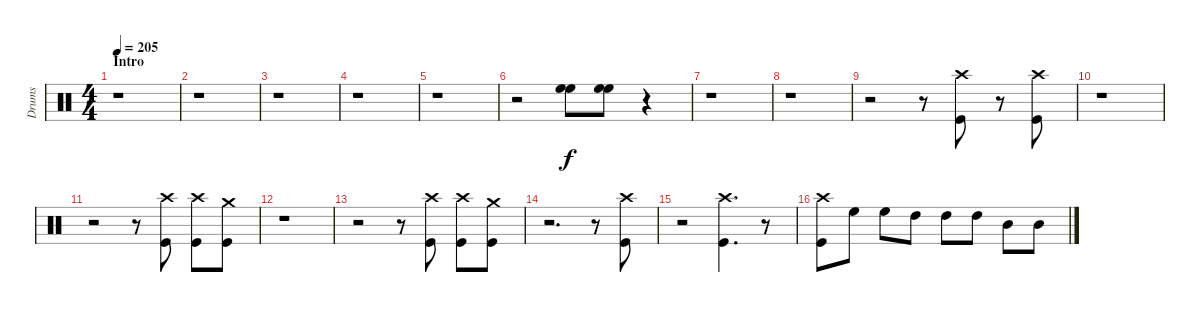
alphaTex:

\track ("Drums" "Drums") {instrument percussion}
\staff {score}
\articulation defaults
\ts (4 4)
\section ("" "Intro")
\tempo 205
\clef neutral
\ks c
r.1{dy f} |
r.1 |
r.1 |
r.1 |
r.1 |
r.2 ("High Floor Tom (hit)" "High Floor Tom (hit)").8{balance 16} ("High Floor Tom (hit)" "High Floor Tom (hit)").8{balance 0} r.4{balance 8} |
r.1 |
r.1 |
r.2 r.8 ("Crash high (hit)" "Kick (hit)").8 r.8 ("Crash high (hit)" "Kick (hit)").8 |
r.1 |
r.2 r.8 ("Crash high (hit)" "Kick (hit)").8 ("Crash high (hit)" "Kick (hit)").8 ("Crash medium (hit)" "Kick (hit)").8 |
r.1 |
r.2 r.8 ("Crash high (hit)" "Kick (hit)").8 ("Crash high (hit)" "Kick (hit)").8 ("Crash medium (hit)" "Kick (hit)").8 |
r.2{d} r.8 ("Crash high (hit)" "Kick (hit)").8 |
r.2 ("Crash high (hit)" "Kick (hit)").4{d} r.8 |
("Crash high (hit)" "Kick (hit)").8 "High Floor Tom (hit)".8 "High Floor Tom (hit)".8 "High Tom (hit)".8 "High Tom (hit)".8 "High Tom (hit)".8 "Mid Tom (hit)".8 "Mid Tom (hit)".8
